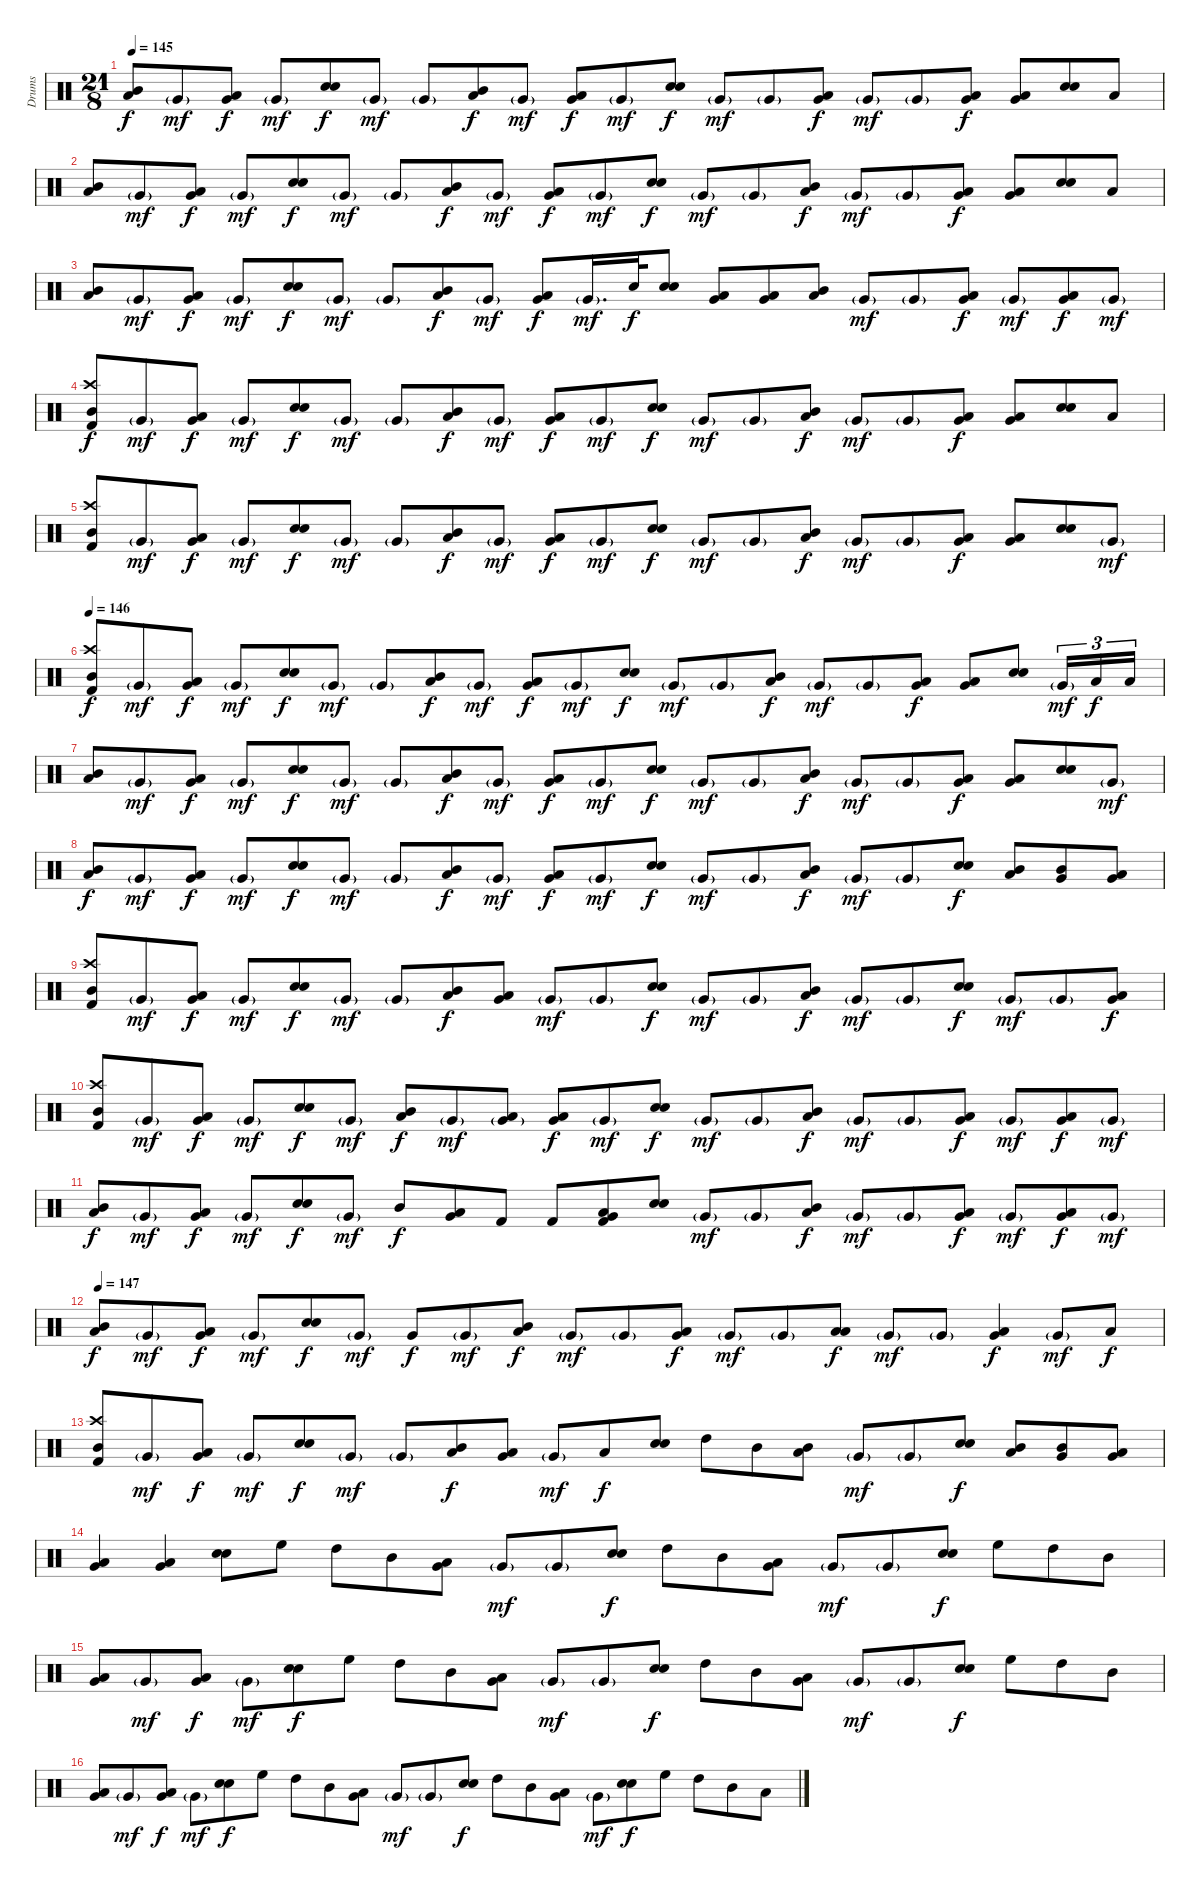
\track ("Drums" "Drums") {instrument percussion}
\staff {score}
\articulation defaults
\ts (21 8)
\tempo 145
\clef neutral
\ks c
("Mid Tom (hit)" "Low Tom (hit)").8{dy f} "Very Low Tom (hit)"{g}.8{dy mf} ("Low Tom (hit)" "Very Low Tom (hit)").8{dy f} "Very Low Tom (hit)"{g}.8{dy mf} ("Snare (hit) 2" "Electric Snare (hit)").8{dy f} "Very Low Tom (hit)"{g}.8{dy mf} "Very Low Tom (hit)"{g}.8 ("Mid Tom (hit)" "Low Tom (hit)").8{dy f} "Very Low Tom (hit)"{g}.8{dy mf} ("Low Tom (hit)" "Very Low Tom (hit)").8{dy f} "Very Low Tom (hit)"{g}.8{dy mf} ("Snare (hit) 2" "Electric Snare (hit)").8{dy f} "Very Low Tom (hit)"{g}.8{dy mf} "Very Low Tom (hit)"{g}.8 ("Low Tom (hit)" "Very Low Tom (hit)").8{dy f} "Very Low Tom (hit)"{g}.8{dy mf} "Very Low Tom (hit)"{g}.8 ("Low Tom (hit)" "Very Low Tom (hit)").8{dy f} ("Low Tom (hit)" "Very Low Tom (hit)").8 ("Snare (hit) 2" "Electric Snare (hit)").8 "Low Tom (hit)".8 |
("Mid Tom (hit)" "Low Tom (hit)").8 "Very Low Tom (hit)"{g}.8{dy mf} ("Low Tom (hit)" "Very Low Tom (hit)").8{dy f} "Very Low Tom (hit)"{g}.8{dy mf} ("Snare (hit) 2" "Electric Snare (hit)").8{dy f} "Very Low Tom (hit)"{g}.8{dy mf} "Very Low Tom (hit)"{g}.8 ("Mid Tom (hit)" "Low Tom (hit)").8{dy f} "Very Low Tom (hit)"{g}.8{dy mf} ("Low Tom (hit)" "Very Low Tom (hit)").8{dy f} "Very Low Tom (hit)"{g}.8{dy mf} ("Snare (hit) 2" "Electric Snare (hit)").8{dy f} "Very Low Tom (hit)"{g}.8{dy mf} "Very Low Tom (hit)"{g}.8 ("Mid Tom (hit)" "Low Tom (hit)").8{dy f} "Very Low Tom (hit)"{g}.8{dy mf} "Very Low Tom (hit)"{g}.8 ("Low Tom (hit)" "Very Low Tom (hit)").8{dy f} ("Low Tom (hit)" "Very Low Tom (hit)").8 ("Snare (hit) 2" "Electric Snare (hit)").8 "Low Tom (hit)".8 |
("Mid Tom (hit)" "Low Tom (hit)").8 "Very Low Tom (hit)"{g}.8{dy mf} ("Low Tom (hit)" "Very Low Tom (hit)").8{dy f} "Very Low Tom (hit)"{g}.8{dy mf} ("Snare (hit) 2" "Electric Snare (hit)").8{dy f} "Very Low Tom (hit)"{g}.8{dy mf} "Very Low Tom (hit)"{g}.8 ("Mid Tom (hit)" "Low Tom (hit)").8{dy f} "Very Low Tom (hit)"{g}.8{dy mf} ("Low Tom (hit)" "Very Low Tom (hit)").8{dy f} "Very Low Tom (hit)"{g}.16{d dy mf} "Snare (hit) 2".32{dy f} ("Snare (hit) 2" "Electric Snare (hit)").8 ("Very Low Tom (hit)" "Low Floor Tom (hit)").8 ("Very Low Tom (hit)" "Low Floor Tom (hit)").8 ("Mid Tom (hit)" "Low Tom (hit)").8 "Very Low Tom (hit)"{g}.8{dy mf} "Very Low Tom (hit)"{g}.8 ("Low Tom (hit)" "Very Low Tom (hit)").8{dy f} "Very Low Tom (hit)"{g}.8{dy mf} ("Very Low Tom (hit)" "Low Floor Tom (hit)").8{dy f} "Very Low Tom (hit)"{g}.8{dy mf} |
("Crash high (hit)" "Mid Tom (hit)" "Kick (hit) 2").8{dy f} "Very Low Tom (hit)"{g}.8{dy mf} ("Low Tom (hit)" "Very Low Tom (hit)").8{dy f} "Very Low Tom (hit)"{g}.8{dy mf} ("Snare (hit) 2" "Electric Snare (hit)").8{dy f} "Very Low Tom (hit)"{g}.8{dy mf} "Very Low Tom (hit)"{g}.8 ("Mid Tom (hit)" "Low Tom (hit)").8{dy f} "Very Low Tom (hit)"{g}.8{dy mf} ("Low Tom (hit)" "Very Low Tom (hit)").8{dy f} "Very Low Tom (hit)"{g}.8{dy mf} ("Snare (hit) 2" "Electric Snare (hit)").8{dy f} "Very Low Tom (hit)"{g}.8{dy mf} "Very Low Tom (hit)"{g}.8 ("Mid Tom (hit)" "Low Tom (hit)").8{dy f} "Very Low Tom (hit)"{g}.8{dy mf} "Very Low Tom (hit)"{g}.8 ("Low Tom (hit)" "Very Low Tom (hit)").8{dy f} ("Low Tom (hit)" "Very Low Tom (hit)").8 ("Snare (hit) 2" "Electric Snare (hit)").8 "Low Tom (hit)".8 |
("Crash high (hit)" "Mid Tom (hit)" "Kick (hit) 2").8 "Very Low Tom (hit)"{g}.8{dy mf} ("Low Tom (hit)" "Very Low Tom (hit)").8{dy f} "Very Low Tom (hit)"{g}.8{dy mf} ("Snare (hit) 2" "Electric Snare (hit)").8{dy f} "Very Low Tom (hit)"{g}.8{dy mf} "Very Low Tom (hit)"{g}.8 ("Mid Tom (hit)" "Low Tom (hit)").8{dy f} "Very Low Tom (hit)"{g}.8{dy mf} ("Low Tom (hit)" "Very Low Tom (hit)").8{dy f} "Very Low Tom (hit)"{g}.8{dy mf} ("Snare (hit) 2" "Electric Snare (hit)").8{dy f} "Very Low Tom (hit)"{g}.8{dy mf} "Very Low Tom (hit)"{g}.8 ("Mid Tom (hit)" "Low Tom (hit)").8{dy f} "Very Low Tom (hit)"{g}.8{dy mf} "Very Low Tom (hit)"{g}.8 ("Low Tom (hit)" "Very Low Tom (hit)").8{dy f} ("Low Tom (hit)" "Very Low Tom (hit)").8 ("Snare (hit) 2" "Electric Snare (hit)").8 "Very Low Tom (hit)"{g}.8{dy mf} |
\tempo 146
("Crash high (hit)" "Mid Tom (hit)" "Kick (hit) 2").8{dy f} "Very Low Tom (hit)"{g}.8{dy mf} ("Low Tom (hit)" "Very Low Tom (hit)").8{dy f} "Very Low Tom (hit)"{g}.8{dy mf} ("Snare (hit) 2" "Electric Snare (hit)").8{dy f} "Very Low Tom (hit)"{g}.8{dy mf} "Very Low Tom (hit)"{g}.8 ("Mid Tom (hit)" "Low Tom (hit)").8{dy f} "Very Low Tom (hit)"{g}.8{dy mf} ("Low Tom (hit)" "Very Low Tom (hit)").8{dy f} "Very Low Tom (hit)"{g}.8{dy mf} ("Snare (hit) 2" "Electric Snare (hit)").8{dy f} "Very Low Tom (hit)"{g}.8{dy mf} "Very Low Tom (hit)"{g}.8 ("Mid Tom (hit)" "Low Tom (hit)").8{dy f} "Very Low Tom (hit)"{g}.8{dy mf} "Very Low Tom (hit)"{g}.8 ("Low Tom (hit)" "Very Low Tom (hit)").8{dy f} ("Low Tom (hit)" "Very Low Tom (hit)").8 ("Snare (hit) 2" "Electric Snare (hit)").8 "Very Low Tom (hit)"{g}.16{tu (3 2) dy mf} "Low Tom (hit)".16{tu (3 2) dy f} "Low Tom (hit)".16{tu (3 2)} |
("Mid Tom (hit)" "Low Tom (hit)").8 "Very Low Tom (hit)"{g}.8{dy mf} ("Low Tom (hit)" "Very Low Tom (hit)").8{dy f} "Very Low Tom (hit)"{g}.8{dy mf} ("Snare (hit) 2" "Electric Snare (hit)").8{dy f} "Very Low Tom (hit)"{g}.8{dy mf} "Very Low Tom (hit)"{g}.8 ("Mid Tom (hit)" "Low Tom (hit)").8{dy f} "Very Low Tom (hit)"{g}.8{dy mf} ("Low Tom (hit)" "Very Low Tom (hit)").8{dy f} "Very Low Tom (hit)"{g}.8{dy mf} ("Snare (hit) 2" "Electric Snare (hit)").8{dy f} "Very Low Tom (hit)"{g}.8{dy mf} "Very Low Tom (hit)"{g}.8 ("Mid Tom (hit)" "Low Tom (hit)").8{dy f} "Very Low Tom (hit)"{g}.8{dy mf} "Very Low Tom (hit)"{g}.8 ("Low Tom (hit)" "Very Low Tom (hit)").8{dy f} ("Low Tom (hit)" "Very Low Tom (hit)").8 ("Snare (hit) 2" "Electric Snare (hit)").8 "Very Low Tom (hit)"{g}.8{dy mf} |
("Mid Tom (hit)" "Low Tom (hit)").8{dy f} "Very Low Tom (hit)"{g}.8{dy mf} ("Low Tom (hit)" "Very Low Tom (hit)").8{dy f} "Very Low Tom (hit)"{g}.8{dy mf} ("Snare (hit) 2" "Electric Snare (hit)").8{dy f} "Very Low Tom (hit)"{g}.8{dy mf} "Very Low Tom (hit)"{g}.8 ("Mid Tom (hit)" "Low Tom (hit)").8{dy f} "Very Low Tom (hit)"{g}.8{dy mf} ("Low Tom (hit)" "Very Low Tom (hit)").8{dy f} "Very Low Tom (hit)"{g}.8{dy mf} ("Snare (hit) 2" "Electric Snare (hit)").8{dy f} "Very Low Tom (hit)"{g}.8{dy mf} "Very Low Tom (hit)"{g}.8 ("Mid Tom (hit)" "Low Tom (hit)").8{dy f} "Very Low Tom (hit)"{g}.8{dy mf} "Very Low Tom (hit)"{g}.8 ("Snare (hit) 2" "Electric Snare (hit)").8{dy f} ("Mid Tom (hit)" "Low Tom (hit)").8 ("Mid Tom (hit)" "Very Low Tom (hit)").8 ("Low Tom (hit)" "Very Low Tom (hit)").8 |
("Crash high (hit)" "Mid Tom (hit)" "Kick (hit) 2").8 "Very Low Tom (hit)"{g}.8{dy mf} ("Low Tom (hit)" "Very Low Tom (hit)").8{dy f} "Very Low Tom (hit)"{g}.8{dy mf} ("Snare (hit) 2" "Electric Snare (hit)").8{dy f} "Very Low Tom (hit)"{g}.8{dy mf} "Very Low Tom (hit)"{g}.8 ("Mid Tom (hit)" "Low Tom (hit)").8{dy f} ("Low Tom (hit)" "Very Low Tom (hit)").8 "Very Low Tom (hit)"{g}.8{dy mf} "Very Low Tom (hit)"{g}.8 ("Snare (hit) 2" "Electric Snare (hit)").8{dy f} "Very Low Tom (hit)"{g}.8{dy mf} "Very Low Tom (hit)"{g}.8 ("Mid Tom (hit)" "Low Tom (hit)").8{dy f} "Very Low Tom (hit)"{g}.8{dy mf} "Very Low Tom (hit)"{g}.8 ("Snare (hit) 2" "Electric Snare (hit)").8{dy f} "Very Low Tom (hit)"{g}.8{dy mf} "Very Low Tom (hit)"{g}.8 ("Low Tom (hit)" "Very Low Tom (hit)").8{dy f} |
("Crash high (hit)" "Mid Tom (hit)" "Kick (hit) 2").8 "Very Low Tom (hit)"{g}.8{dy mf} ("Low Tom (hit)" "Very Low Tom (hit)").8{dy f} "Very Low Tom (hit)"{g}.8{dy mf} ("Snare (hit) 2" "Electric Snare (hit)").8{dy f} "Very Low Tom (hit)"{g}.8{dy mf} ("Mid Tom (hit)" "Low Tom (hit)").8{dy f} "Very Low Tom (hit)"{g}.8{dy mf} ("Low Tom (hit)" "Very Low Tom (hit)"{g}).8 ("Low Tom (hit)" "Very Low Tom (hit)").8{dy f} "Very Low Tom (hit)"{g}.8{dy mf} ("Snare (hit) 2" "Electric Snare (hit)").8{dy f} "Very Low Tom (hit)"{g}.8{dy mf} "Very Low Tom (hit)"{g}.8 ("Mid Tom (hit)" "Low Tom (hit)").8{dy f} "Very Low Tom (hit)"{g}.8{dy mf} "Very Low Tom (hit)"{g}.8 ("Low Tom (hit)" "Very Low Tom (hit)").8{dy f} "Very Low Tom (hit)"{g}.8{dy mf} ("Low Tom (hit)" "Very Low Tom (hit)").8{dy f} "Very Low Tom (hit)"{g}.8{dy mf} |
("Mid Tom (hit)" "Low Tom (hit)").8{dy f} "Very Low Tom (hit)"{g}.8{dy mf} ("Low Tom (hit)" "Very Low Tom (hit)").8{dy f} "Very Low Tom (hit)"{g}.8{dy mf} ("Snare (hit) 2" "Electric Snare (hit)").8{dy f} "Very Low Tom (hit)"{g}.8{dy mf} "Mid Tom (hit)".8{dy f} ("Low Tom (hit)" "Very Low Tom (hit)").8 "Kick (hit) 2".8 "Kick (hit) 2".8 ("Low Tom (hit)" "Very Low Tom (hit)" "Kick (hit) 2").8 ("Snare (hit) 2" "Electric Snare (hit)").8 "Very Low Tom (hit)"{g}.8{dy mf} "Very Low Tom (hit)"{g}.8 ("Mid Tom (hit)" "Low Tom (hit)").8{dy f} "Very Low Tom (hit)"{g}.8{dy mf} "Very Low Tom (hit)"{g}.8 ("Low Tom (hit)" "Very Low Tom (hit)").8{dy f} "Very Low Tom (hit)"{g}.8{dy mf} ("Very Low Tom (hit)" "Low Floor Tom (hit)").8{dy f} "Very Low Tom (hit)"{g}.8{dy mf} |
\tempo 147
("Mid Tom (hit)" "Low Tom (hit)").8{dy f} "Very Low Tom (hit)"{g}.8{dy mf} ("Low Tom (hit)" "Very Low Tom (hit)").8{dy f} "Very Low Tom (hit)"{g}.8{dy mf} ("Snare (hit) 2" "Electric Snare (hit)").8{dy f} "Very Low Tom (hit)"{g}.8{dy mf} "Very Low Tom (hit)".8{dy f} "Very Low Tom (hit)"{g}.8{dy mf} ("Mid Tom (hit)" "Low Tom (hit)").8{dy f} "Very Low Tom (hit)"{g}.8{dy mf} "Very Low Tom (hit)"{g}.8 ("Low Tom (hit)" "Very Low Tom (hit)").8{dy f} "Very Low Tom (hit)"{g}.8{dy mf} "Very Low Tom (hit)"{g}.8 ("Low Tom (hit)" "Low Floor Tom (hit)").8{dy f} "Very Low Tom (hit)"{g}.8{dy mf} "Very Low Tom (hit)"{g}.8 ("Very Low Tom (hit)" "Low Floor Tom (hit)").4{dy f} "Very Low Tom (hit)"{g}.8{dy mf} "Low Floor Tom (hit)".8{dy f} |
("Crash high (hit)" "Mid Tom (hit)" "Kick (hit) 2").8 "Very Low Tom (hit)"{g}.8{dy mf} ("Low Tom (hit)" "Very Low Tom (hit)").8{dy f} "Very Low Tom (hit)"{g}.8{dy mf} ("Snare (hit) 2" "Electric Snare (hit)").8{dy f} "Very Low Tom (hit)"{g}.8{dy mf} "Very Low Tom (hit)"{g}.8 ("Mid Tom (hit)" "Low Tom (hit)").8{dy f} ("Low Tom (hit)" "Very Low Tom (hit)").8 "Very Low Tom (hit)"{g}.8{dy mf} "Low Tom (hit)".8{dy f} ("Snare (hit) 2" "Electric Snare (hit)").8 "High Tom (hit)".8 "Mid Tom (hit)".8 ("Mid Tom (hit)" "Low Tom (hit)").8 "Very Low Tom (hit)"{g}.8{dy mf} "Very Low Tom (hit)"{g}.8 ("Snare (hit) 2" "Electric Snare (hit)").8{dy f} ("Mid Tom (hit)" "Low Tom (hit)").8 ("Mid Tom (hit)" "Very Low Tom (hit)").8 ("Low Tom (hit)" "Very Low Tom (hit)").8 |
("Low Tom (hit)" "Very Low Tom (hit)").4 ("Low Tom (hit)" "Very Low Tom (hit)").4 ("Snare (hit) 2" "Electric Snare (hit)").8 "High Floor Tom (hit)".8 "High Tom (hit)".8 "Mid Tom (hit)".8 ("Low Tom (hit)" "Very Low Tom (hit)").8 "Very Low Tom (hit)"{g}.8{dy mf} "Very Low Tom (hit)"{g}.8 ("Snare (hit) 2" "Electric Snare (hit)").8{dy f} "High Tom (hit)".8 "Mid Tom (hit)".8 ("Low Tom (hit)" "Very Low Tom (hit)").8 "Very Low Tom (hit)"{g}.8{dy mf} "Very Low Tom (hit)"{g}.8 ("Snare (hit) 2" "Electric Snare (hit)").8{dy f} "High Floor Tom (hit)".8 "High Tom (hit)".8 "Mid Tom (hit)".8 |
("Low Tom (hit)" "Very Low Tom (hit)").8 "Very Low Tom (hit)"{g}.8{dy mf} ("Low Tom (hit)" "Very Low Tom (hit)").8{dy f} "Very Low Tom (hit)"{g}.8{dy mf} ("Snare (hit) 2" "Electric Snare (hit)").8{dy f} "High Floor Tom (hit)".8 "High Tom (hit)".8 "Mid Tom (hit)".8 ("Low Tom (hit)" "Very Low Tom (hit)").8 "Very Low Tom (hit)"{g}.8{dy mf} "Very Low Tom (hit)"{g}.8 ("Snare (hit) 2" "Electric Snare (hit)").8{dy f} "High Tom (hit)".8 "Mid Tom (hit)".8 ("Low Tom (hit)" "Very Low Tom (hit)").8 "Very Low Tom (hit)"{g}.8{dy mf} "Very Low Tom (hit)"{g}.8 ("Snare (hit) 2" "Electric Snare (hit)").8{dy f} "High Floor Tom (hit)".8 "High Tom (hit)".8 "Mid Tom (hit)".8 |
("Low Tom (hit)" "Very Low Tom (hit)").8 "Very Low Tom (hit)"{g}.8{dy mf} ("Low Tom (hit)" "Very Low Tom (hit)").8{dy f} "Very Low Tom (hit)"{g}.8{dy mf} ("Snare (hit) 2" "Electric Snare (hit)").8{dy f} "High Floor Tom (hit)".8 "High Tom (hit)".8 "Mid Tom (hit)".8 ("Low Tom (hit)" "Very Low Tom (hit)").8 "Very Low Tom (hit)"{g}.8{dy mf} "Very Low Tom (hit)"{g}.8 ("Snare (hit) 2" "Electric Snare (hit)").8{dy f} "High Tom (hit)".8 "Mid Tom (hit)".8 ("Low Tom (hit)" "Very Low Tom (hit)").8 "Very Low Tom (hit)"{g}.8{dy mf} ("Snare (hit) 2" "Electric Snare (hit)").8{dy f} "High Floor Tom (hit)".8 "High Tom (hit)".8 "Mid Tom (hit)".8 "Low Tom (hit)".8
